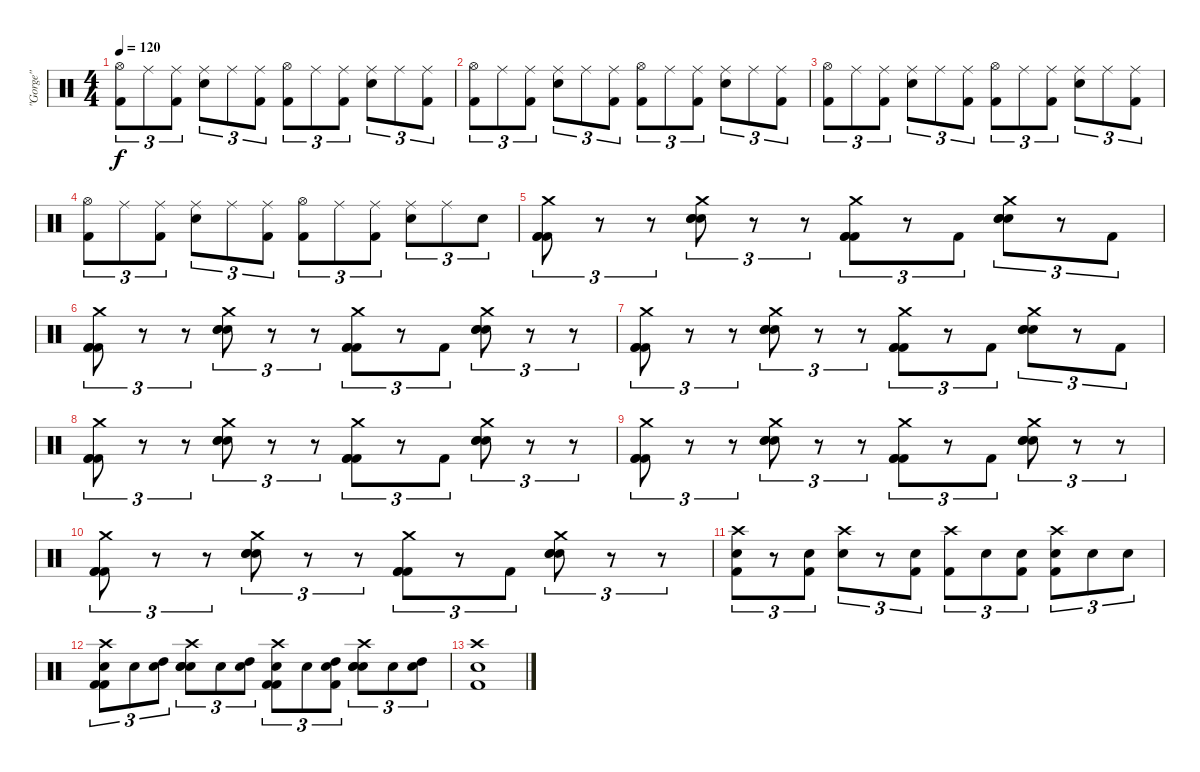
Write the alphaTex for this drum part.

\track ("\"Gorge\"" "\"Gorge\"") {instrument percussion}
\staff {score}
\articulation defaults
\ts (4 4)
\tempo 120
\clef neutral
\ks c
("Hi-Hat (open)" "Kick (hit) 2").8{tu (3 2) dy f} "Ride (middle)".8{tu (3 2)} ("Ride (middle)" "Kick (hit) 2").8{tu (3 2)} ("Ride (middle)" "Electric Snare (hit)").8{tu (3 2)} "Ride (middle)".8{tu (3 2)} ("Ride (middle)" "Kick (hit) 2").8{tu (3 2)} ("Hi-Hat (open)" "Kick (hit) 2").8{tu (3 2)} "Ride (middle)".8{tu (3 2)} ("Ride (middle)" "Kick (hit) 2").8{tu (3 2)} ("Ride (middle)" "Electric Snare (hit)").8{tu (3 2)} "Ride (middle)".8{tu (3 2)} ("Ride (middle)" "Kick (hit) 2").8{tu (3 2)} |
("Hi-Hat (open)" "Kick (hit) 2").8{tu (3 2)} "Ride (middle)".8{tu (3 2)} ("Ride (middle)" "Kick (hit) 2").8{tu (3 2)} ("Ride (middle)" "Electric Snare (hit)").8{tu (3 2)} "Ride (middle)".8{tu (3 2)} ("Ride (middle)" "Kick (hit) 2").8{tu (3 2)} ("Hi-Hat (open)" "Kick (hit) 2").8{tu (3 2)} "Ride (middle)".8{tu (3 2)} ("Ride (middle)" "Kick (hit) 2").8{tu (3 2)} ("Ride (middle)" "Electric Snare (hit)").8{tu (3 2)} "Ride (middle)".8{tu (3 2)} ("Ride (middle)" "Kick (hit) 2").8{tu (3 2)} |
("Hi-Hat (open)" "Kick (hit) 2").8{tu (3 2)} "Ride (middle)".8{tu (3 2)} ("Ride (middle)" "Kick (hit) 2").8{tu (3 2)} ("Ride (middle)" "Electric Snare (hit)").8{tu (3 2)} "Ride (middle)".8{tu (3 2)} ("Ride (middle)" "Kick (hit) 2").8{tu (3 2)} ("Hi-Hat (open)" "Kick (hit) 2").8{tu (3 2)} "Ride (middle)".8{tu (3 2)} ("Ride (middle)" "Kick (hit) 2").8{tu (3 2)} ("Ride (middle)" "Electric Snare (hit)").8{tu (3 2)} "Ride (middle)".8{tu (3 2)} ("Ride (middle)" "Kick (hit) 2").8{tu (3 2)} |
("Hi-Hat (open)" "Kick (hit) 2").8{tu (3 2)} "Ride (middle)".8{tu (3 2)} ("Ride (middle)" "Kick (hit) 2").8{tu (3 2)} ("Ride (middle)" "Electric Snare (hit)").8{tu (3 2)} "Ride (middle)".8{tu (3 2)} ("Ride (middle)" "Kick (hit) 2").8{tu (3 2)} ("Hi-Hat (open)" "Kick (hit) 2").8{tu (3 2)} "Ride (middle)".8{tu (3 2)} ("Ride (middle)" "Kick (hit) 2").8{tu (3 2)} ("Ride (middle)" "Electric Snare (hit)").8{tu (3 2)} "Ride (middle)".8{tu (3 2)} "Electric Snare (hit)".8{tu (3 2)} |
("Crash medium (hit)" "Kick (hit) 2" "Kick (hit) 2" "Kick (hit) 2").8{tu (3 2)} r.8{tu (3 2)} r.8{tu (3 2)} ("Crash medium (hit)" "Electric Snare (hit)" "Electric Snare (hit)" "Electric Snare (hit)").8{tu (3 2)} r.8{tu (3 2)} r.8{tu (3 2)} ("Crash medium (hit)" "Kick (hit) 2" "Kick (hit) 2" "Kick (hit) 2").8{tu (3 2)} r.8{tu (3 2)} "Kick (hit) 2".8{tu (3 2)} ("Crash medium (hit)" "Electric Snare (hit)" "Electric Snare (hit)" "Electric Snare (hit)").8{tu (3 2)} r.8{tu (3 2)} "Kick (hit) 2".8{tu (3 2)} |
("Crash medium (hit)" "Kick (hit) 2" "Kick (hit) 2" "Kick (hit) 2").8{tu (3 2)} r.8{tu (3 2)} r.8{tu (3 2)} ("Crash medium (hit)" "Electric Snare (hit)" "Electric Snare (hit)" "Electric Snare (hit)").8{tu (3 2)} r.8{tu (3 2)} r.8{tu (3 2)} ("Crash medium (hit)" "Kick (hit) 2" "Kick (hit) 2" "Kick (hit) 2").8{tu (3 2)} r.8{tu (3 2)} "Kick (hit) 2".8{tu (3 2)} ("Crash medium (hit)" "Electric Snare (hit)" "Electric Snare (hit)" "Electric Snare (hit)").8{tu (3 2)} r.8{tu (3 2)} r.8{tu (3 2)} |
("Crash medium (hit)" "Kick (hit) 2" "Kick (hit) 2" "Kick (hit) 2").8{tu (3 2)} r.8{tu (3 2)} r.8{tu (3 2)} ("Crash medium (hit)" "Electric Snare (hit)" "Electric Snare (hit)" "Electric Snare (hit)").8{tu (3 2)} r.8{tu (3 2)} r.8{tu (3 2)} ("Crash medium (hit)" "Kick (hit) 2" "Kick (hit) 2" "Kick (hit) 2").8{tu (3 2)} r.8{tu (3 2)} "Kick (hit) 2".8{tu (3 2)} ("Crash medium (hit)" "Electric Snare (hit)" "Electric Snare (hit)" "Electric Snare (hit)").8{tu (3 2)} r.8{tu (3 2)} "Kick (hit) 2".8{tu (3 2)} |
("Crash medium (hit)" "Kick (hit) 2" "Kick (hit) 2" "Kick (hit) 2").8{tu (3 2)} r.8{tu (3 2)} r.8{tu (3 2)} ("Crash medium (hit)" "Electric Snare (hit)" "Electric Snare (hit)" "Electric Snare (hit)").8{tu (3 2)} r.8{tu (3 2)} r.8{tu (3 2)} ("Crash medium (hit)" "Kick (hit) 2" "Kick (hit) 2" "Kick (hit) 2").8{tu (3 2)} r.8{tu (3 2)} "Kick (hit) 2".8{tu (3 2)} ("Crash medium (hit)" "Electric Snare (hit)" "Electric Snare (hit)" "Electric Snare (hit)").8{tu (3 2)} r.8{tu (3 2)} r.8{tu (3 2)} |
("Crash medium (hit)" "Kick (hit) 2" "Kick (hit) 2" "Kick (hit) 2").8{tu (3 2)} r.8{tu (3 2)} r.8{tu (3 2)} ("Crash medium (hit)" "Electric Snare (hit)" "Electric Snare (hit)" "Electric Snare (hit)").8{tu (3 2)} r.8{tu (3 2)} r.8{tu (3 2)} ("Crash medium (hit)" "Kick (hit) 2" "Kick (hit) 2" "Kick (hit) 2").8{tu (3 2)} r.8{tu (3 2)} "Kick (hit) 2".8{tu (3 2)} ("Crash medium (hit)" "Electric Snare (hit)" "Electric Snare (hit)" "Electric Snare (hit)").8{tu (3 2)} r.8{tu (3 2)} r.8{tu (3 2)} |
("Crash medium (hit)" "Kick (hit) 2" "Kick (hit) 2" "Kick (hit) 2").8{tu (3 2)} r.8{tu (3 2)} r.8{tu (3 2)} ("Crash medium (hit)" "Electric Snare (hit)" "Electric Snare (hit)" "Electric Snare (hit)").8{tu (3 2)} r.8{tu (3 2)} r.8{tu (3 2)} ("Crash medium (hit)" "Kick (hit) 2" "Kick (hit) 2" "Kick (hit) 2").8{tu (3 2)} r.8{tu (3 2)} "Kick (hit) 2".8{tu (3 2)} ("Crash medium (hit)" "Electric Snare (hit)" "Electric Snare (hit)" "Electric Snare (hit)").8{tu (3 2)} r.8{tu (3 2)} r.8{tu (3 2)} |
("Crash high (hit)" "Electric Snare (hit)" "Kick (hit) 2").8{tu (3 2)} r.8{tu (3 2)} ("Electric Snare (hit)" "Kick (hit) 2").8{tu (3 2)} ("Crash high (hit)" "Electric Snare (hit)").8{tu (3 2)} r.8{tu (3 2)} ("Electric Snare (hit)" "Kick (hit) 2").8{tu (3 2)} ("Crash high (hit)" "Kick (hit) 2").8{tu (3 2)} "Electric Snare (hit)".8{tu (3 2)} ("Electric Snare (hit)" "Kick (hit) 2").8{tu (3 2)} ("Crash high (hit)" "Electric Snare (hit)" "Kick (hit) 2").8{tu (3 2)} "Electric Snare (hit)".8{tu (3 2)} "Electric Snare (hit)".8{tu (3 2)} |
("Crash high (hit)" "Electric Snare (hit)" "Kick (hit) 2" "Kick (hit) 2").8{tu (3 2)} "Electric Snare (hit)".8{tu (3 2)} ("High Tom (hit)" "Electric Snare (hit)").8{tu (3 2)} ("Crash high (hit)" "Electric Snare (hit)" "Electric Snare (hit)" "Electric Snare (hit)").8{tu (3 2)} "Electric Snare (hit)".8{tu (3 2)} ("High Tom (hit)" "Electric Snare (hit)").8{tu (3 2)} ("Crash high (hit)" "Electric Snare (hit)" "Kick (hit) 2" "Kick (hit) 2").8{tu (3 2)} "Electric Snare (hit)".8{tu (3 2)} ("High Tom (hit)" "Electric Snare (hit)" "Kick (hit) 2").8{tu (3 2)} ("Crash high (hit)" "Electric Snare (hit)" "Electric Snare (hit)" "Electric Snare (hit)").8{tu (3 2)} "Electric Snare (hit)".8{tu (3 2)} ("High Tom (hit)" "Electric Snare (hit)").8{tu (3 2)} |
("Kick (hit) 2" "Crash high (hit)" "Electric Snare (hit)").1
